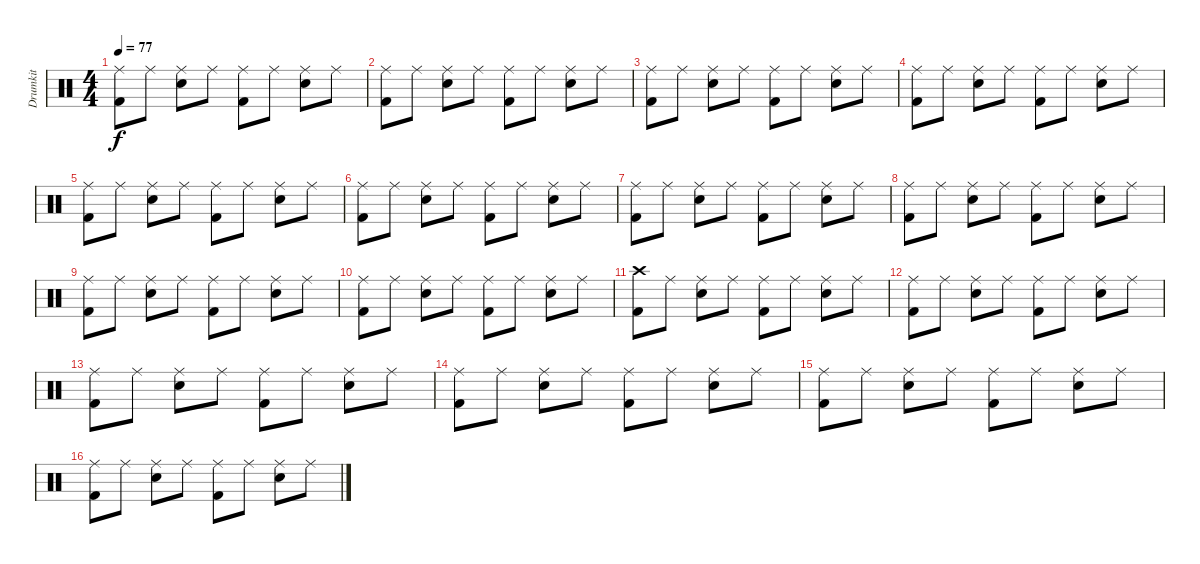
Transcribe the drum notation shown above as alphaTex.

\track ("Drumkit" "Drumkit") {instrument percussion}
\staff {score}
\articulation defaults
\ts (4 4)
\tempo 77
\clef neutral
\ks c
("Ride (middle)" "Kick (hit) 2").8{dy f} "Ride (middle)".8 ("Ride (middle)" "Snare (hit) 2").8 "Ride (middle)".8 ("Ride (middle)" "Kick (hit) 2").8 "Ride (middle)".8 ("Ride (middle)" "Snare (hit) 2").8 "Ride (middle)".8 |
("Ride (middle)" "Kick (hit) 2").8 "Ride (middle)".8 ("Ride (middle)" "Snare (hit) 2").8 "Ride (middle)".8 ("Ride (middle)" "Kick (hit) 2").8 "Ride (middle)".8 ("Ride (middle)" "Snare (hit) 2").8 "Ride (middle)".8 |
("Ride (middle)" "Kick (hit) 2").8 "Ride (middle)".8 ("Ride (middle)" "Snare (hit) 2").8 "Ride (middle)".8 ("Ride (middle)" "Kick (hit) 2").8 "Ride (middle)".8 ("Ride (middle)" "Snare (hit) 2").8 "Ride (middle)".8 |
("Ride (middle)" "Kick (hit) 2").8 "Ride (middle)".8 ("Ride (middle)" "Snare (hit) 2").8 "Ride (middle)".8 ("Ride (middle)" "Kick (hit) 2").8 "Ride (middle)".8 ("Ride (middle)" "Snare (hit) 2").8 "Ride (middle)".8 |
("Ride (middle)" "Kick (hit) 2").8 "Ride (middle)".8 ("Ride (middle)" "Snare (hit) 2").8 "Ride (middle)".8 ("Ride (middle)" "Kick (hit) 2").8 "Ride (middle)".8 ("Ride (middle)" "Snare (hit) 2").8 "Ride (middle)".8 |
("Ride (middle)" "Kick (hit) 2").8 "Ride (middle)".8 ("Ride (middle)" "Snare (hit) 2").8 "Ride (middle)".8 ("Ride (middle)" "Kick (hit) 2").8 "Ride (middle)".8 ("Ride (middle)" "Snare (hit) 2").8 "Ride (middle)".8 |
("Ride (middle)" "Kick (hit) 2").8 "Ride (middle)".8 ("Ride (middle)" "Snare (hit) 2").8 "Ride (middle)".8 ("Ride (middle)" "Kick (hit) 2").8 "Ride (middle)".8 ("Ride (middle)" "Snare (hit) 2").8 "Ride (middle)".8 |
("Ride (middle)" "Kick (hit) 2").8 "Ride (middle)".8 ("Ride (middle)" "Snare (hit) 2").8 "Ride (middle)".8 ("Ride (middle)" "Kick (hit) 2").8 "Ride (middle)".8 ("Ride (middle)" "Snare (hit) 2").8 "Ride (middle)".8 |
("Ride (middle)" "Kick (hit) 2").8 "Ride (middle)".8 ("Ride (middle)" "Snare (hit) 2").8 "Ride (middle)".8 ("Ride (middle)" "Kick (hit) 2").8 "Ride (middle)".8 ("Ride (middle)" "Snare (hit) 2").8 "Ride (middle)".8 |
("Ride (middle)" "Kick (hit) 2").8 "Ride (middle)".8 ("Ride (middle)" "Snare (hit) 2").8 "Ride (middle)".8 ("Ride (middle)" "Kick (hit) 2").8 "Ride (middle)".8 ("Ride (middle)" "Snare (hit) 2").8 "Ride (middle)".8 |
("Crash high (hit)" "Kick (hit) 2").8 "Ride (middle)".8 ("Ride (middle)" "Snare (hit) 2").8 "Ride (middle)".8 ("Ride (middle)" "Kick (hit) 2").8 "Ride (middle)".8 ("Ride (middle)" "Snare (hit) 2").8 "Ride (middle)".8 |
("Ride (middle)" "Kick (hit) 2").8 "Ride (middle)".8 ("Ride (middle)" "Snare (hit) 2").8 "Ride (middle)".8 ("Ride (middle)" "Kick (hit) 2").8 "Ride (middle)".8 ("Ride (middle)" "Snare (hit) 2").8 "Ride (middle)".8 |
("Ride (middle)" "Kick (hit) 2").8 "Ride (middle)".8 ("Ride (middle)" "Snare (hit) 2").8 "Ride (middle)".8 ("Ride (middle)" "Kick (hit) 2").8 "Ride (middle)".8 ("Ride (middle)" "Snare (hit) 2").8 "Ride (middle)".8 |
("Ride (middle)" "Kick (hit) 2").8 "Ride (middle)".8 ("Ride (middle)" "Snare (hit) 2").8 "Ride (middle)".8 ("Ride (middle)" "Kick (hit) 2").8 "Ride (middle)".8 ("Ride (middle)" "Snare (hit) 2").8 "Ride (middle)".8 |
("Ride (middle)" "Kick (hit) 2").8 "Ride (middle)".8 ("Ride (middle)" "Snare (hit) 2").8 "Ride (middle)".8 ("Ride (middle)" "Kick (hit) 2").8 "Ride (middle)".8 ("Ride (middle)" "Snare (hit) 2").8 "Ride (middle)".8 |
("Ride (middle)" "Kick (hit) 2").8 "Ride (middle)".8 ("Ride (middle)" "Snare (hit) 2").8 "Ride (middle)".8 ("Ride (middle)" "Kick (hit) 2").8 "Ride (middle)".8 ("Ride (middle)" "Snare (hit) 2").8 "Ride (middle)".8
